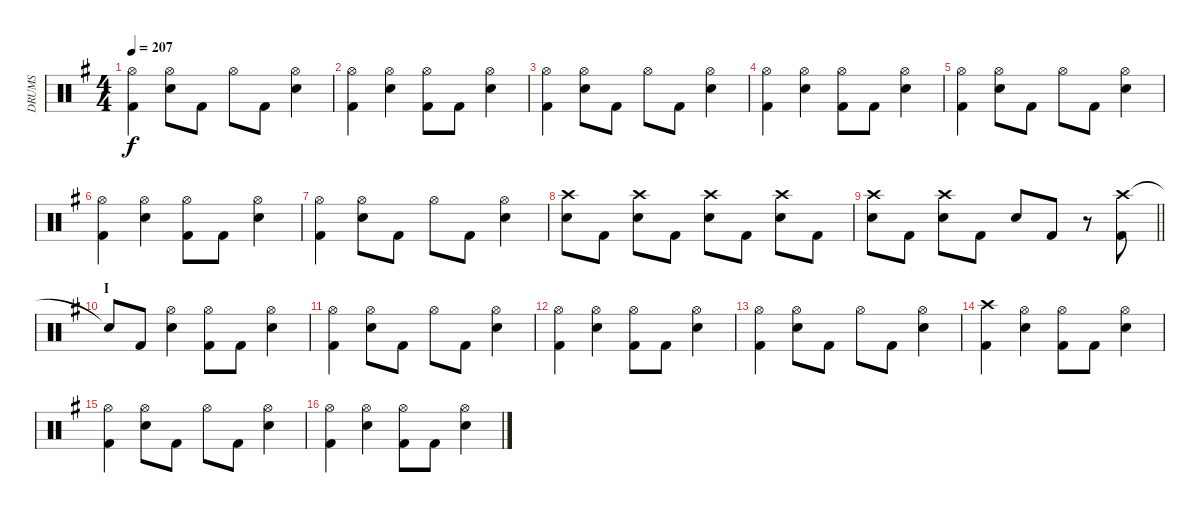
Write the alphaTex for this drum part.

\track ("DRUMS" "DRUMS") {instrument percussion}
\staff {score}
\articulation defaults
\ts (4 4)
\tempo 207
\clef neutral
\ks eminor
("Hi-Hat (open)" "Kick (hit) 2").4{dy f} ("Hi-Hat (open)" "Snare (hit) 2").8 "Kick (hit) 2".8 "Hi-Hat (open)".8 "Kick (hit) 2".8 ("Hi-Hat (open)" "Snare (hit) 2").4 |
("Hi-Hat (open)" "Kick (hit) 2").4 ("Hi-Hat (open)" "Snare (hit) 2").4 ("Hi-Hat (open)" "Kick (hit) 2").8 "Kick (hit) 2".8 ("Hi-Hat (open)" "Snare (hit) 2").4 |
("Hi-Hat (open)" "Kick (hit) 2").4 ("Hi-Hat (open)" "Snare (hit) 2").8 "Kick (hit) 2".8 "Hi-Hat (open)".8 "Kick (hit) 2".8 ("Hi-Hat (open)" "Snare (hit) 2").4 |
("Hi-Hat (open)" "Kick (hit) 2").4 ("Hi-Hat (open)" "Snare (hit) 2").4 ("Hi-Hat (open)" "Kick (hit) 2").8 "Kick (hit) 2".8 ("Hi-Hat (open)" "Snare (hit) 2").4 |
("Hi-Hat (open)" "Kick (hit) 2").4 ("Hi-Hat (open)" "Snare (hit) 2").8 "Kick (hit) 2".8 "Hi-Hat (open)".8 "Kick (hit) 2".8 ("Hi-Hat (open)" "Snare (hit) 2").4 |
("Hi-Hat (open)" "Kick (hit) 2").4 ("Hi-Hat (open)" "Snare (hit) 2").4 ("Hi-Hat (open)" "Kick (hit) 2").8 "Kick (hit) 2".8 ("Hi-Hat (open)" "Snare (hit) 2").4 |
("Hi-Hat (open)" "Kick (hit) 2").4 ("Hi-Hat (open)" "Snare (hit) 2").8 "Kick (hit) 2".8 "Hi-Hat (open)".8 "Kick (hit) 2".8 ("Hi-Hat (open)" "Snare (hit) 2").4 |
("Crash high (hit)" "Snare (hit) 2").8 "Kick (hit) 2".8 ("Crash high (hit)" "Snare (hit) 2").8 "Kick (hit) 2".8 ("Crash high (hit)" "Snare (hit) 2").8 "Kick (hit) 2".8 ("Crash high (hit)" "Snare (hit) 2").8 "Kick (hit) 2".8 |
\barLineRight lightlight
("Crash high (hit)" "Snare (hit) 2").8 "Kick (hit) 2".8 ("Crash high (hit)" "Snare (hit) 2").8 "Kick (hit) 2".8 "Snare (hit) 2".8 "Kick (hit) 2".8 r.8 ("Crash high (hit)" "Kick (hit) 2").8 |
\section ("" "I")
"Snare (hit)"{t}.8 "Kick (hit) 2".8 ("Hi-Hat (open)" "Snare (hit) 2").4 ("Hi-Hat (open)" "Kick (hit) 2").8 "Kick (hit) 2".8 ("Hi-Hat (open)" "Snare (hit) 2").4 |
("Hi-Hat (open)" "Kick (hit) 2").4 ("Hi-Hat (open)" "Snare (hit) 2").8 "Kick (hit) 2".8 "Hi-Hat (open)".8 "Kick (hit) 2".8 ("Hi-Hat (open)" "Snare (hit) 2").4 |
("Hi-Hat (open)" "Kick (hit) 2").4 ("Hi-Hat (open)" "Snare (hit) 2").4 ("Hi-Hat (open)" "Kick (hit) 2").8 "Kick (hit) 2".8 ("Hi-Hat (open)" "Snare (hit) 2").4 |
("Hi-Hat (open)" "Kick (hit) 2").4 ("Hi-Hat (open)" "Snare (hit) 2").8 "Kick (hit) 2".8 "Hi-Hat (open)".8 "Kick (hit) 2".8 ("Hi-Hat (open)" "Snare (hit) 2").4 |
("Crash high (hit)" "Kick (hit) 2").4 ("Hi-Hat (open)" "Snare (hit) 2").4 ("Hi-Hat (open)" "Kick (hit) 2").8 "Kick (hit) 2".8 ("Hi-Hat (open)" "Snare (hit) 2").4 |
("Hi-Hat (open)" "Kick (hit) 2").4 ("Hi-Hat (open)" "Snare (hit) 2").8 "Kick (hit) 2".8 "Hi-Hat (open)".8 "Kick (hit) 2".8 ("Hi-Hat (open)" "Snare (hit) 2").4 |
("Hi-Hat (open)" "Kick (hit) 2").4 ("Hi-Hat (open)" "Snare (hit) 2").4 ("Hi-Hat (open)" "Kick (hit) 2").8 "Kick (hit) 2".8 ("Hi-Hat (open)" "Snare (hit) 2").4
